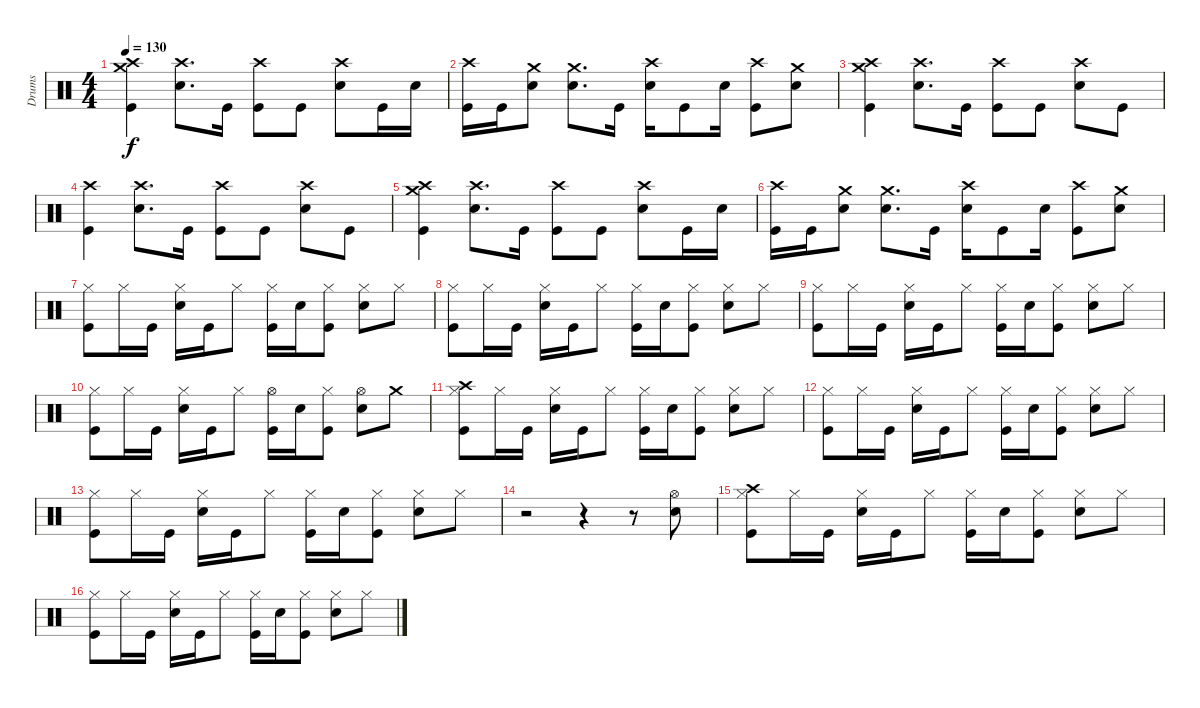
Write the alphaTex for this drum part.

\track ("Drums" "Drums") {instrument percussion}
\staff {score}
\articulation defaults
\ts (4 4)
\tempo 130
\clef neutral
\ks c
("Crash high (hit)" "Crash medium (hit)" "Kick (hit)").4{dy f} ("Crash high (hit)" "Snare (hit) 2").8{d} "Kick (hit)".16 ("Crash high (hit)" "Kick (hit)").8 "Kick (hit)".8 ("Crash high (hit)" "Snare (hit) 2").8 "Kick (hit)".16 "Snare (hit) 2".16 |
("Crash high (hit)" "Kick (hit)").16 "Kick (hit)".16 ("Crash medium (hit)" "Snare (hit) 2").8 ("Crash medium (hit)" "Snare (hit) 2").8{d} "Kick (hit)".16 ("Crash high (hit)" "Snare (hit) 2").16 "Kick (hit)".8 "Snare (hit) 2".16 ("Crash high (hit)" "Kick (hit)").8 ("Crash medium (hit)" "Snare (hit) 2").8 |
("Crash high (hit)" "Crash medium (hit)" "Kick (hit)").4 ("Crash high (hit)" "Snare (hit) 2").8{d} "Kick (hit)".16 ("Crash high (hit)" "Kick (hit)").8 "Kick (hit)".8 ("Crash high (hit)" "Snare (hit) 2").8 "Kick (hit)".8 |
("Crash high (hit)" "Kick (hit)").4 ("Crash high (hit)" "Snare (hit) 2").8{d} "Kick (hit)".16 ("Crash high (hit)" "Kick (hit)").8 "Kick (hit)".8 ("Crash high (hit)" "Snare (hit) 2").8 "Kick (hit)".8 |
("Crash high (hit)" "Crash medium (hit)" "Kick (hit)").4 ("Crash high (hit)" "Snare (hit) 2").8{d} "Kick (hit)".16 ("Crash high (hit)" "Kick (hit)").8 "Kick (hit)".8 ("Crash high (hit)" "Snare (hit) 2").8 "Kick (hit)".16 "Snare (hit) 2".16 |
("Crash high (hit)" "Kick (hit)").16 "Kick (hit)".16 ("Crash medium (hit)" "Snare (hit) 2").8 ("Crash medium (hit)" "Snare (hit) 2").8{d} "Kick (hit)".16 ("Crash high (hit)" "Snare (hit) 2").16 "Kick (hit)".8 "Snare (hit) 2".16 ("Crash high (hit)" "Kick (hit)").8 ("Crash medium (hit)" "Snare (hit) 2").8 |
("Hi-Hat (closed)" "Kick (hit)").8 "Hi-Hat (closed)".16 "Kick (hit)".16 ("Hi-Hat (closed)" "Snare (hit) 2").16 "Kick (hit)".16 "Hi-Hat (closed)".8 ("Hi-Hat (closed)" "Kick (hit)").16 "Snare (hit) 2".16 ("Hi-Hat (closed)" "Kick (hit)").8 ("Hi-Hat (closed)" "Snare (hit) 2").8 "Hi-Hat (closed)".8 |
("Hi-Hat (closed)" "Kick (hit)").8 "Hi-Hat (closed)".16 "Kick (hit)".16 ("Hi-Hat (closed)" "Snare (hit) 2").16 "Kick (hit)".16 "Hi-Hat (closed)".8 ("Hi-Hat (closed)" "Kick (hit)").16 "Snare (hit) 2".16 ("Hi-Hat (closed)" "Kick (hit)").8 ("Hi-Hat (closed)" "Snare (hit) 2").8 "Hi-Hat (closed)".8 |
("Hi-Hat (closed)" "Kick (hit)").8 "Hi-Hat (closed)".16 "Kick (hit)".16 ("Hi-Hat (closed)" "Snare (hit) 2").16 "Kick (hit)".16 "Hi-Hat (closed)".8 ("Hi-Hat (closed)" "Kick (hit)").16 "Snare (hit) 2".16 ("Hi-Hat (closed)" "Kick (hit)").8 ("Hi-Hat (closed)" "Snare (hit) 2").8 "Hi-Hat (closed)".8 |
("Hi-Hat (closed)" "Kick (hit)").8 "Hi-Hat (closed)".16 "Kick (hit)".16 ("Hi-Hat (closed)" "Snare (hit) 2").16 "Kick (hit)".16 "Hi-Hat (closed)".8 ("Hi-Hat (open)" "Kick (hit)").16 "Snare (hit) 2".16 ("Hi-Hat (closed)" "Kick (hit)").8 ("Hi-Hat (open)" "Snare (hit) 2").8 "Crash medium (hit)".8 |
("Crash high (hit)" "Hi-Hat (closed)" "Kick (hit)").8 "Hi-Hat (closed)".16 "Kick (hit)".16 ("Hi-Hat (closed)" "Snare (hit) 2").16 "Kick (hit)".16 "Hi-Hat (closed)".8 ("Hi-Hat (closed)" "Kick (hit)").16 "Snare (hit) 2".16 ("Hi-Hat (closed)" "Kick (hit)").8 ("Hi-Hat (closed)" "Snare (hit) 2").8 "Hi-Hat (closed)".8 |
("Hi-Hat (closed)" "Kick (hit)").8 "Hi-Hat (closed)".16 "Kick (hit)".16 ("Hi-Hat (closed)" "Snare (hit) 2").16 "Kick (hit)".16 "Hi-Hat (closed)".8 ("Hi-Hat (closed)" "Kick (hit)").16 "Snare (hit) 2".16 ("Hi-Hat (closed)" "Kick (hit)").8 ("Hi-Hat (closed)" "Snare (hit) 2").8 "Hi-Hat (closed)".8 |
("Hi-Hat (closed)" "Kick (hit)").8 "Hi-Hat (closed)".16 "Kick (hit)".16 ("Hi-Hat (closed)" "Snare (hit) 2").16 "Kick (hit)".16 "Hi-Hat (closed)".8 ("Hi-Hat (closed)" "Kick (hit)").16 "Snare (hit) 2".16 ("Hi-Hat (closed)" "Kick (hit)").8 ("Hi-Hat (closed)" "Snare (hit) 2").8 "Hi-Hat (closed)".8 |
r.2 r.4 r.8 ("Hi-Hat (open)" "Snare (hit) 2").8 |
("Crash high (hit)" "Hi-Hat (closed)" "Kick (hit)").8 "Hi-Hat (closed)".16 "Kick (hit)".16 ("Hi-Hat (closed)" "Snare (hit) 2").16 "Kick (hit)".16 "Hi-Hat (closed)".8 ("Hi-Hat (closed)" "Kick (hit)").16 "Snare (hit) 2".16 ("Hi-Hat (closed)" "Kick (hit)").8 ("Hi-Hat (closed)" "Snare (hit) 2").8 "Hi-Hat (closed)".8 |
("Hi-Hat (closed)" "Kick (hit)").8 "Hi-Hat (closed)".16 "Kick (hit)".16 ("Hi-Hat (closed)" "Snare (hit) 2").16 "Kick (hit)".16 "Hi-Hat (closed)".8 ("Hi-Hat (closed)" "Kick (hit)").16 "Snare (hit) 2".16 ("Hi-Hat (closed)" "Kick (hit)").8 ("Hi-Hat (closed)" "Snare (hit) 2").8 "Hi-Hat (closed)".8
